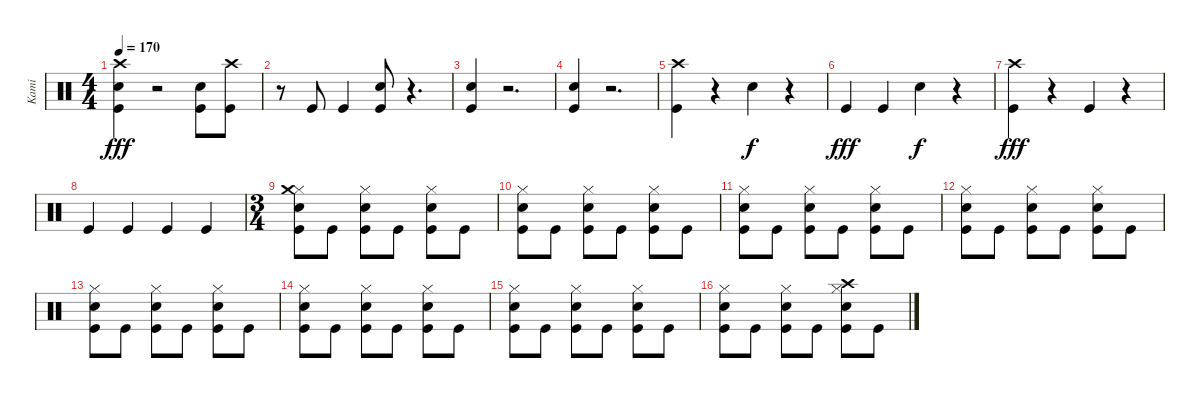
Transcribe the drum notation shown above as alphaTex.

\track ("Kami" "Kami") {instrument percussion}
\staff {score}
\articulation defaults
\ts (4 4)
\tempo 170
\clef neutral
\ks c
("Kick (hit)" "Snare (hit) 2" "Crash high (hit)").4{dy fff} r.2 ("Kick (hit)" "Snare (hit) 2").8 ("Kick (hit)" "Crash high (hit)").8 |
r.8 "Kick (hit)".8 "Kick (hit)".4 ("Kick (hit)" "Snare (hit) 2").8 r.4{d} |
("Kick (hit)" "Snare (hit) 2").4 r.2{d} |
("Kick (hit)" "Snare (hit) 2").4 r.2{d} |
("Kick (hit)" "Crash high (hit)").4 r.4 "Snare (hit) 2".4{dy f} r.4 |
"Kick (hit)".4{dy fff} "Kick (hit)".4 "Snare (hit) 2".4{dy f} r.4 |
("Kick (hit)" "Crash high (hit)").4{dy fff} r.4 "Kick (hit)".4 r.4 |
"Kick (hit)".4 "Kick (hit)".4 "Kick (hit)".4 "Kick (hit)".4 |
\ts (3 4)
("Kick (hit)" "Snare (hit) 2" "Hi-Hat (closed)" "Crash medium (hit)").8 "Kick (hit)".8 ("Kick (hit)" "Snare (hit) 2" "Hi-Hat (closed)").8 "Kick (hit)".8 ("Kick (hit)" "Snare (hit) 2" "Hi-Hat (closed)").8 "Kick (hit)".8 |
("Kick (hit)" "Snare (hit) 2" "Hi-Hat (closed)").8 "Kick (hit)".8 ("Kick (hit)" "Snare (hit) 2" "Hi-Hat (closed)").8 "Kick (hit)".8 ("Kick (hit)" "Snare (hit) 2" "Hi-Hat (closed)").8 "Kick (hit)".8 |
("Kick (hit)" "Snare (hit) 2" "Hi-Hat (closed)").8 "Kick (hit)".8 ("Kick (hit)" "Snare (hit) 2" "Hi-Hat (closed)").8 "Kick (hit)".8 ("Kick (hit)" "Snare (hit) 2" "Hi-Hat (closed)").8 "Kick (hit)".8 |
("Kick (hit)" "Snare (hit) 2" "Hi-Hat (closed)").8 "Kick (hit)".8 ("Kick (hit)" "Snare (hit) 2" "Hi-Hat (closed)").8 "Kick (hit)".8 ("Kick (hit)" "Snare (hit) 2" "Hi-Hat (closed)").8 "Kick (hit)".8 |
("Kick (hit)" "Snare (hit) 2" "Hi-Hat (closed)").8 "Kick (hit)".8 ("Kick (hit)" "Snare (hit) 2" "Hi-Hat (closed)").8 "Kick (hit)".8 ("Kick (hit)" "Snare (hit) 2" "Hi-Hat (closed)").8 "Kick (hit)".8 |
("Kick (hit)" "Snare (hit) 2" "Hi-Hat (closed)").8 "Kick (hit)".8 ("Kick (hit)" "Snare (hit) 2" "Hi-Hat (closed)").8 "Kick (hit)".8 ("Kick (hit)" "Snare (hit) 2" "Hi-Hat (closed)").8 "Kick (hit)".8 |
("Kick (hit)" "Snare (hit) 2" "Hi-Hat (closed)").8 "Kick (hit)".8 ("Kick (hit)" "Snare (hit) 2" "Hi-Hat (closed)").8 "Kick (hit)".8 ("Kick (hit)" "Snare (hit) 2" "Hi-Hat (closed)").8 "Kick (hit)".8 |
("Kick (hit)" "Snare (hit) 2" "Hi-Hat (closed)").8 "Kick (hit)".8 ("Kick (hit)" "Snare (hit) 2" "Hi-Hat (closed)").8 "Kick (hit)".8 ("Kick (hit)" "Snare (hit) 2" "Hi-Hat (closed)" "Crash high (hit)").8 "Kick (hit)".8
